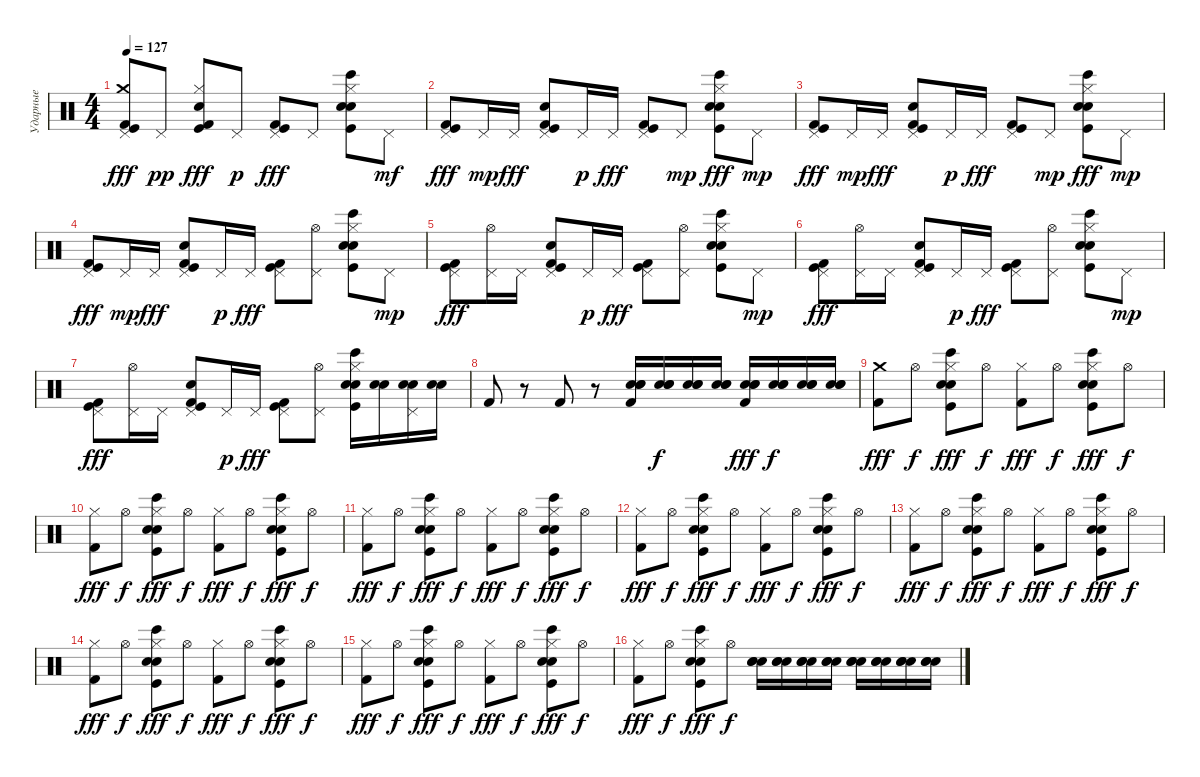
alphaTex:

\track ("Ударные" "Ударные") {instrument percussion}
\staff {score}
\articulation defaults
\ts (4 4)
\tempo 127
\clef neutral
\ks c
("Kick (hit) 2" "Pedal Hi-Hat (hit)" "Crash medium (hit)" "Kick (hit)").8{dy fff} "Pedal Hi-Hat (hit)".8{dy pp} ("Kick (hit) 2" "Hi-Hat (closed)" "Kick (hit)" "Hand Clap (hit)").8{dy fff} "Pedal Hi-Hat (hit)".8{dy p} ("Kick (hit) 2" "Pedal Hi-Hat (hit)" "Kick (hit)").8{dy fff} "Pedal Hi-Hat (hit)".8 ("Hi-Hat (closed)" "Hand Clap (hit)" "Kick (hit)" "Snare (hit) 2" "Bongo High (hit)").8 "Pedal Hi-Hat (hit)".8{dy mf} |
("Kick (hit) 2" "Pedal Hi-Hat (hit)" "Kick (hit)").8{dy fff} "Pedal Hi-Hat (hit)".16{dy mp} "Pedal Hi-Hat (hit)".16{dy fff} ("Kick (hit) 2" "Pedal Hi-Hat (hit)" "Kick (hit)" "Hand Clap (hit)").8 "Pedal Hi-Hat (hit)".16{dy p} "Pedal Hi-Hat (hit)".16{dy fff} ("Kick (hit) 2" "Pedal Hi-Hat (hit)" "Kick (hit)").8 "Pedal Hi-Hat (hit)".8{dy mp} ("Hi-Hat (closed)" "Hand Clap (hit)" "Kick (hit)" "Snare (hit) 2" "Bongo High (hit)").8{dy fff} "Pedal Hi-Hat (hit)".8{dy mp} |
("Kick (hit) 2" "Pedal Hi-Hat (hit)" "Kick (hit)").8{dy fff} "Pedal Hi-Hat (hit)".16{dy mp} "Pedal Hi-Hat (hit)".16{dy fff} ("Kick (hit) 2" "Pedal Hi-Hat (hit)" "Kick (hit)" "Hand Clap (hit)").8 "Pedal Hi-Hat (hit)".16{dy p} "Pedal Hi-Hat (hit)".16{dy fff} ("Kick (hit) 2" "Pedal Hi-Hat (hit)" "Kick (hit)").8 "Pedal Hi-Hat (hit)".8{dy mp} ("Hi-Hat (closed)" "Hand Clap (hit)" "Kick (hit)" "Snare (hit) 2" "Bongo High (hit)").8{dy fff} "Pedal Hi-Hat (hit)".8{dy mp} |
("Kick (hit) 2" "Pedal Hi-Hat (hit)" "Kick (hit)").8{dy fff} "Pedal Hi-Hat (hit)".16{dy mp} "Pedal Hi-Hat (hit)".16{dy fff} ("Kick (hit) 2" "Pedal Hi-Hat (hit)" "Kick (hit)" "Hand Clap (hit)").8 "Pedal Hi-Hat (hit)".16{dy p} "Pedal Hi-Hat (hit)".16{dy fff} ("Kick (hit) 2" "Pedal Hi-Hat (hit)" "Kick (hit)").8 ("Pedal Hi-Hat (hit)" "Hi-Hat (open)").8 ("Hi-Hat (closed)" "Hand Clap (hit)" "Kick (hit)" "Snare (hit) 2" "Bongo High (hit)").8 "Pedal Hi-Hat (hit)".8{dy mp} |
("Kick (hit) 2" "Pedal Hi-Hat (hit)" "Kick (hit)").8{dy fff} ("Pedal Hi-Hat (hit)" "Hi-Hat (open)").16 "Pedal Hi-Hat (hit)".16 ("Kick (hit) 2" "Pedal Hi-Hat (hit)" "Kick (hit)" "Hand Clap (hit)").8 "Pedal Hi-Hat (hit)".16{dy p} "Pedal Hi-Hat (hit)".16{dy fff} ("Kick (hit) 2" "Pedal Hi-Hat (hit)" "Kick (hit)").8 ("Pedal Hi-Hat (hit)" "Hi-Hat (open)").8 ("Hi-Hat (closed)" "Hand Clap (hit)" "Kick (hit)" "Snare (hit) 2" "Bongo High (hit)").8 "Pedal Hi-Hat (hit)".8{dy mp} |
("Kick (hit) 2" "Pedal Hi-Hat (hit)" "Kick (hit)").8{dy fff} ("Pedal Hi-Hat (hit)" "Hi-Hat (open)").16 "Pedal Hi-Hat (hit)".16 ("Kick (hit) 2" "Pedal Hi-Hat (hit)" "Kick (hit)" "Hand Clap (hit)").8 "Pedal Hi-Hat (hit)".16{dy p} "Pedal Hi-Hat (hit)".16{dy fff} ("Kick (hit) 2" "Pedal Hi-Hat (hit)" "Kick (hit)").8 ("Pedal Hi-Hat (hit)" "Hi-Hat (open)").8 ("Hi-Hat (closed)" "Hand Clap (hit)" "Kick (hit)" "Snare (hit) 2" "Bongo High (hit)").8 "Pedal Hi-Hat (hit)".8{dy mp} |
("Kick (hit) 2" "Pedal Hi-Hat (hit)" "Kick (hit)").8{dy fff} ("Pedal Hi-Hat (hit)" "Hi-Hat (open)").16 "Pedal Hi-Hat (hit)".16 ("Kick (hit) 2" "Pedal Hi-Hat (hit)" "Kick (hit)" "Hand Clap (hit)").8 "Pedal Hi-Hat (hit)".16{dy p} "Pedal Hi-Hat (hit)".16{dy fff} ("Kick (hit) 2" "Pedal Hi-Hat (hit)" "Kick (hit)").8 ("Pedal Hi-Hat (hit)" "Hi-Hat (open)").8 ("Hi-Hat (closed)" "Hand Clap (hit)" "Kick (hit)" "Snare (hit) 2" "Bongo High (hit)").16 ("Hand Clap (hit)" "Snare (hit) 2").16 ("Pedal Hi-Hat (hit)" "Hand Clap (hit)" "Snare (hit) 2").16 ("Hand Clap (hit)" "Snare (hit) 2").16 |
"Kick (hit) 2".8 r.8 "Kick (hit) 2".8 r.8 ("Hand Clap (hit)" "Hand Clap (hit)" "Snare (hit) 2" "Kick (hit) 2").16 ("Hand Clap (hit)" "Hand Clap (hit)" "Snare (hit) 2").16{dy f} ("Hand Clap (hit)" "Hand Clap (hit)" "Snare (hit) 2").16 ("Hand Clap (hit)" "Hand Clap (hit)" "Snare (hit) 2").16 ("Hand Clap (hit)" "Hand Clap (hit)" "Snare (hit) 2" "Kick (hit) 2").16{dy fff} ("Hand Clap (hit)" "Hand Clap (hit)" "Snare (hit) 2").16{dy f} ("Hand Clap (hit)" "Hand Clap (hit)" "Snare (hit) 2").16 ("Hand Clap (hit)" "Hand Clap (hit)" "Snare (hit) 2").16 |
("Kick (hit) 2" "Crash medium (hit)").8{dy fff} "Hi-Hat (open)".8{dy f} ("Hi-Hat (closed)" "Hand Clap (hit)" "Kick (hit)" "Snare (hit) 2" "Bongo High (hit)").8{dy fff} "Hi-Hat (open)".8{dy f} ("Kick (hit) 2" "Hi-Hat (closed)").8{dy fff} "Hi-Hat (open)".8{dy f} ("Hi-Hat (closed)" "Hand Clap (hit)" "Kick (hit)" "Snare (hit) 2" "Bongo High (hit)").8{dy fff} "Hi-Hat (open)".8{dy f} |
("Kick (hit) 2" "Hi-Hat (closed)").8{dy fff} "Hi-Hat (open)".8{dy f} ("Hi-Hat (closed)" "Hand Clap (hit)" "Kick (hit)" "Snare (hit) 2" "Bongo High (hit)").8{dy fff} "Hi-Hat (open)".8{dy f} ("Kick (hit) 2" "Hi-Hat (closed)").8{dy fff} "Hi-Hat (open)".8{dy f} ("Hi-Hat (closed)" "Hand Clap (hit)" "Kick (hit)" "Snare (hit) 2" "Bongo High (hit)").8{dy fff} "Hi-Hat (open)".8{dy f} |
("Kick (hit) 2" "Hi-Hat (closed)").8{dy fff} "Hi-Hat (open)".8{dy f} ("Hi-Hat (closed)" "Hand Clap (hit)" "Kick (hit)" "Snare (hit) 2" "Bongo High (hit)").8{dy fff} "Hi-Hat (open)".8{dy f} ("Kick (hit) 2" "Hi-Hat (closed)").8{dy fff} "Hi-Hat (open)".8{dy f} ("Hi-Hat (closed)" "Hand Clap (hit)" "Kick (hit)" "Snare (hit) 2" "Bongo High (hit)").8{dy fff} "Hi-Hat (open)".8{dy f} |
("Kick (hit) 2" "Hi-Hat (closed)").8{dy fff} "Hi-Hat (open)".8{dy f} ("Hi-Hat (closed)" "Hand Clap (hit)" "Kick (hit)" "Snare (hit) 2" "Bongo High (hit)").8{dy fff} "Hi-Hat (open)".8{dy f} ("Kick (hit) 2" "Hi-Hat (closed)").8{dy fff} "Hi-Hat (open)".8{dy f} ("Hi-Hat (closed)" "Hand Clap (hit)" "Kick (hit)" "Snare (hit) 2" "Bongo High (hit)").8{dy fff} "Hi-Hat (open)".8{dy f} |
("Kick (hit) 2" "Hi-Hat (closed)").8{dy fff} "Hi-Hat (open)".8{dy f} ("Hi-Hat (closed)" "Hand Clap (hit)" "Kick (hit)" "Snare (hit) 2" "Bongo High (hit)").8{dy fff} "Hi-Hat (open)".8{dy f} ("Kick (hit) 2" "Hi-Hat (closed)").8{dy fff} "Hi-Hat (open)".8{dy f} ("Hi-Hat (closed)" "Hand Clap (hit)" "Kick (hit)" "Snare (hit) 2" "Bongo High (hit)").8{dy fff} "Hi-Hat (open)".8{dy f} |
("Kick (hit) 2" "Hi-Hat (closed)").8{dy fff} "Hi-Hat (open)".8{dy f} ("Hi-Hat (closed)" "Hand Clap (hit)" "Kick (hit)" "Snare (hit) 2" "Bongo High (hit)").8{dy fff} "Hi-Hat (open)".8{dy f} ("Kick (hit) 2" "Hi-Hat (closed)").8{dy fff} "Hi-Hat (open)".8{dy f} ("Hi-Hat (closed)" "Hand Clap (hit)" "Kick (hit)" "Snare (hit) 2" "Bongo High (hit)").8{dy fff} "Hi-Hat (open)".8{dy f} |
("Kick (hit) 2" "Hi-Hat (closed)").8{dy fff} "Hi-Hat (open)".8{dy f} ("Hi-Hat (closed)" "Hand Clap (hit)" "Kick (hit)" "Snare (hit) 2" "Bongo High (hit)").8{dy fff} "Hi-Hat (open)".8{dy f} ("Kick (hit) 2" "Hi-Hat (closed)").8{dy fff} "Hi-Hat (open)".8{dy f} ("Hi-Hat (closed)" "Hand Clap (hit)" "Kick (hit)" "Snare (hit) 2" "Bongo High (hit)").8{dy fff} "Hi-Hat (open)".8{dy f} |
("Kick (hit) 2" "Hi-Hat (closed)").8{dy fff} "Hi-Hat (open)".8{dy f} ("Hi-Hat (closed)" "Hand Clap (hit)" "Kick (hit)" "Snare (hit) 2" "Bongo High (hit)").8{dy fff} "Hi-Hat (open)".8{dy f} ("Hand Clap (hit)" "Hand Clap (hit)" "Snare (hit) 2").16 ("Hand Clap (hit)" "Hand Clap (hit)" "Snare (hit) 2").16 ("Hand Clap (hit)" "Hand Clap (hit)" "Snare (hit) 2").16 ("Hand Clap (hit)" "Hand Clap (hit)" "Snare (hit) 2").16 ("Hand Clap (hit)" "Hand Clap (hit)" "Snare (hit) 2").16 ("Hand Clap (hit)" "Hand Clap (hit)" "Snare (hit) 2").16 ("Hand Clap (hit)" "Hand Clap (hit)" "Snare (hit) 2").16 ("Hand Clap (hit)" "Hand Clap (hit)" "Snare (hit) 2").16
